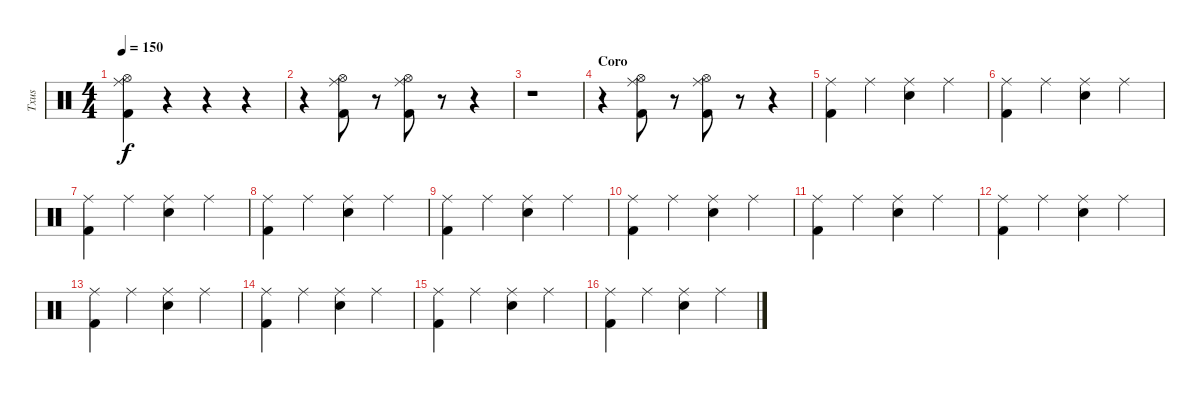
\track ("Txus" "Txus") {instrument percussion}
\staff {score}
\articulation defaults
\ts (4 4)
\tempo 150
\clef neutral
\ks c
("Ride (middle)" "Kick (hit) 2" "Hi-Hat (open)").4{dy f} r.4 r.4 r.4 |
r.4 ("Ride (middle)" "Kick (hit) 2" "Hi-Hat (open)").8 r.8 ("Ride (middle)" "Kick (hit) 2" "Hi-Hat (open)").8 r.8 r.4 |
r.1 |
\section ("" "Coro")
r.4 ("Ride (middle)" "Kick (hit) 2" "Hi-Hat (open)").8 r.8 ("Ride (middle)" "Kick (hit) 2" "Hi-Hat (open)").8 r.8 r.4 |
("Ride (middle)" "Kick (hit) 2").4 "Ride (middle)".4 ("Snare (hit) 2" "Ride (middle)").4 "Ride (middle)".4 |
("Ride (middle)" "Kick (hit) 2").4 "Ride (middle)".4 ("Snare (hit) 2" "Ride (middle)").4 "Ride (middle)".4 |
("Ride (middle)" "Kick (hit) 2").4 "Ride (middle)".4 ("Snare (hit) 2" "Ride (middle)").4 "Ride (middle)".4 |
("Ride (middle)" "Kick (hit) 2").4 "Ride (middle)".4 ("Snare (hit) 2" "Ride (middle)").4 "Ride (middle)".4 |
("Ride (middle)" "Kick (hit) 2").4 "Ride (middle)".4 ("Snare (hit) 2" "Ride (middle)").4 "Ride (middle)".4 |
("Ride (middle)" "Kick (hit) 2").4 "Ride (middle)".4 ("Snare (hit) 2" "Ride (middle)").4 "Ride (middle)".4 |
("Ride (middle)" "Kick (hit) 2").4 "Ride (middle)".4 ("Snare (hit) 2" "Ride (middle)").4 "Ride (middle)".4 |
("Ride (middle)" "Kick (hit) 2").4 "Ride (middle)".4 ("Snare (hit) 2" "Ride (middle)").4 "Ride (middle)".4 |
("Ride (middle)" "Kick (hit) 2").4 "Ride (middle)".4 ("Snare (hit) 2" "Ride (middle)").4 "Ride (middle)".4 |
("Ride (middle)" "Kick (hit) 2").4 "Ride (middle)".4 ("Snare (hit) 2" "Ride (middle)").4 "Ride (middle)".4 |
("Ride (middle)" "Kick (hit) 2").4 "Ride (middle)".4 ("Snare (hit) 2" "Ride (middle)").4 "Ride (middle)".4 |
("Ride (middle)" "Kick (hit) 2").4 "Ride (middle)".4 ("Snare (hit) 2" "Ride (middle)").4 "Ride (middle)".4
